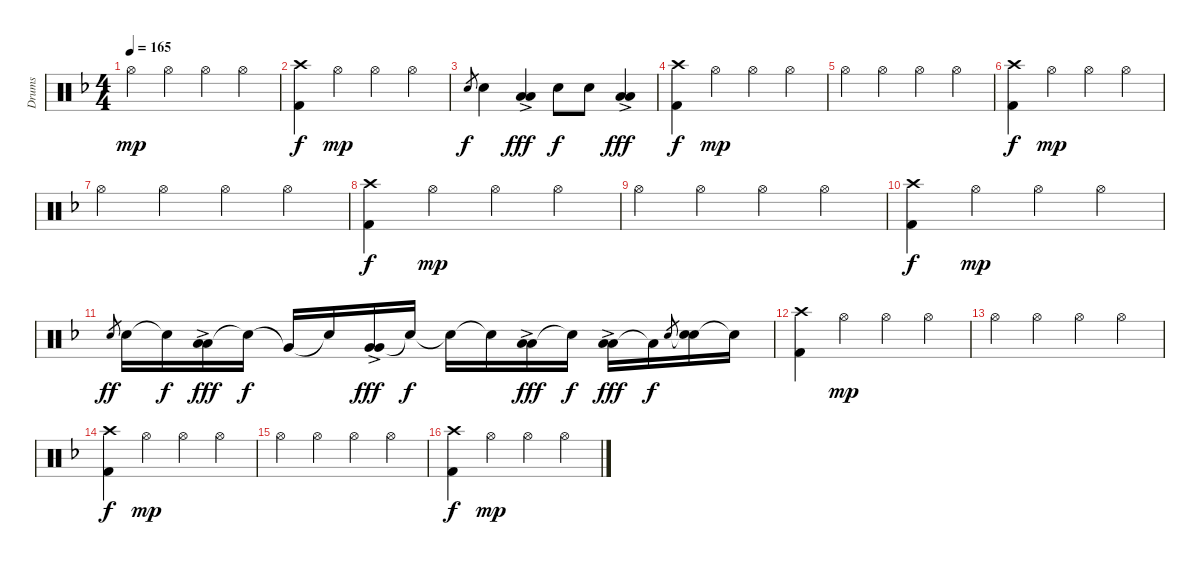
\track ("Drums" "Drums") {instrument percussion}
\staff {score}
\articulation defaults
\ts (4 4)
\tempo 165
\clef neutral
\ks f "Hi-Hat (open)".4{dy mp} "Hi-Hat (open)".4 "Hi-Hat (open)".4 "Hi-Hat (open)".4
|
("Crash high (hit)" "Kick (hit) 2").4{dy f} "Hi-Hat (open)".4{dy mp} "Hi-Hat (open)".4 "Hi-Hat (open)".4 |
"Snare (hit) 2".8{gr dy f} "Snare (hit) 2".4 ("Low Tom (hit)" "Low Tom (hit)"{ac}).4{dy fff} "Snare (hit) 2".8{dy f} "Snare (hit) 2".8 ("Low Tom (hit)" "Low Tom (hit)"{ac}).4{dy fff} |
\section ("" "")
("Crash high (hit)" "Kick (hit) 2").4{dy f} "Hi-Hat (open)".4{dy mp} "Hi-Hat (open)".4 "Hi-Hat (open)".4 |
"Hi-Hat (open)".4 "Hi-Hat (open)".4 "Hi-Hat (open)".4 "Hi-Hat (open)".4 |
("Crash high (hit)" "Kick (hit) 2").4{dy f} "Hi-Hat (open)".4{dy mp} "Hi-Hat (open)".4 "Hi-Hat (open)".4 |
"Hi-Hat (open)".4 "Hi-Hat (open)".4 "Hi-Hat (open)".4 "Hi-Hat (open)".4 |
("Crash high (hit)" "Kick (hit) 2").4{dy f} "Hi-Hat (open)".4{dy mp} "Hi-Hat (open)".4 "Hi-Hat (open)".4 |
"Hi-Hat (open)".4 "Hi-Hat (open)".4 "Hi-Hat (open)".4 "Hi-Hat (open)".4 |
("Crash high (hit)" "Kick (hit) 2").4{dy f} "Hi-Hat (open)".4{dy mp} "Hi-Hat (open)".4 "Hi-Hat (open)".4 |
"Snare (hit) 2".8{gr dy ff} "Snare (hit) 2".16 "Snare (hit) 2"{t}.16{dy f} ("Low Tom (hit)" "Low Tom (hit)"{ac}).16{dy fff} "Snare (hit)"{t}.16{dy f} "Very Low Tom (hit)"{t}.16 "Snare (hit)"{t}.16 ("Very Low Tom (hit)" "Very Low Tom (hit)"{ac}).16{dy fff} "Snare (hit)"{t}.16{dy f} "Snare (hit)"{t}.16 "Snare (hit)"{t}.16 ("Low Floor Tom (hit)" "Low Floor Tom (hit)"{ac}).16{dy fff} "Snare (hit)"{t}.16{dy f} ("Low Floor Tom (hit)" "Low Floor Tom (hit)"{ac}).16{dy fff} "Low Floor Tom (hit)"{t}.16{dy f} "Snare (hit) 2".8{gr} ("Snare (hit)"{t} "Snare (hit) 2").16 "Snare (hit)"{t}.16 |
\section ("" "")
("Crash high (hit)" "Kick (hit) 2").4 "Hi-Hat (open)".4{dy mp} "Hi-Hat (open)".4 "Hi-Hat (open)".4 |
"Hi-Hat (open)".4 "Hi-Hat (open)".4 "Hi-Hat (open)".4 "Hi-Hat (open)".4 |
("Crash high (hit)" "Kick (hit) 2").4{dy f} "Hi-Hat (open)".4{dy mp} "Hi-Hat (open)".4 "Hi-Hat (open)".4 |
"Hi-Hat (open)".4 "Hi-Hat (open)".4 "Hi-Hat (open)".4 "Hi-Hat (open)".4 |
("Crash high (hit)" "Kick (hit) 2").4{dy f} "Hi-Hat (open)".4{dy mp} "Hi-Hat (open)".4 "Hi-Hat (open)".4
